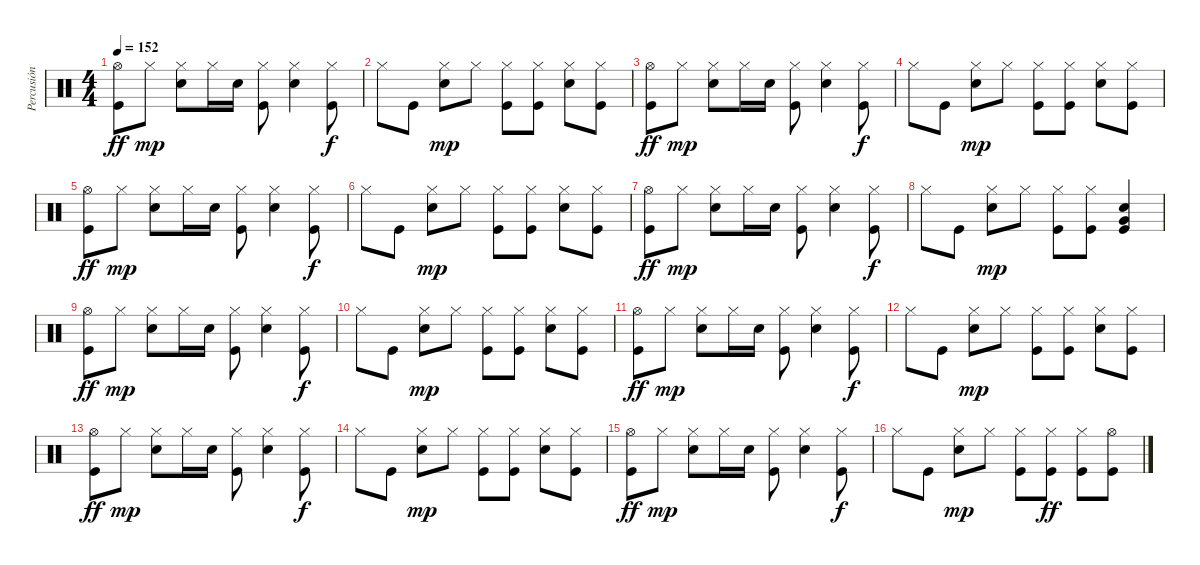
\track ("Percusión" "Percusión") {instrument percussion}
\staff {score}
\articulation defaults
\ts (4 4)
\tempo 152
\clef neutral
\ks c
("Hi-Hat (open)" "Kick (hit)").8{dy ff} "Hi-Hat (closed)".8{dy mp} ("Snare (hit) 2" "Hi-Hat (closed)").8 "Hi-Hat (closed)".16 "Snare (hit) 2".16 ("Hi-Hat (closed)" "Kick (hit)").8 ("Snare (hit) 2" "Hi-Hat (closed)").4 ("Hi-Hat (closed)" "Kick (hit)").8{dy f} |
"Hi-Hat (closed)".8 "Kick (hit)".8 ("Hi-Hat (closed)" "Snare (hit) 2").8{dy mp} "Hi-Hat (closed)".8 ("Hi-Hat (closed)" "Kick (hit)").8 ("Hi-Hat (closed)" "Kick (hit)").8 ("Hi-Hat (closed)" "Snare (hit) 2").8 ("Hi-Hat (closed)" "Kick (hit)").8 |
("Hi-Hat (open)" "Kick (hit)").8{dy ff} "Hi-Hat (closed)".8{dy mp} ("Snare (hit) 2" "Hi-Hat (closed)").8 "Hi-Hat (closed)".16 "Snare (hit) 2".16 ("Hi-Hat (closed)" "Kick (hit)").8 ("Snare (hit) 2" "Hi-Hat (closed)").4 ("Hi-Hat (closed)" "Kick (hit)").8{dy f} |
"Hi-Hat (closed)".8 "Kick (hit)".8 ("Hi-Hat (closed)" "Snare (hit) 2").8{dy mp} "Hi-Hat (closed)".8 ("Hi-Hat (closed)" "Kick (hit)").8 ("Hi-Hat (closed)" "Kick (hit)").8 ("Hi-Hat (closed)" "Snare (hit) 2").8 ("Hi-Hat (closed)" "Kick (hit)").8 |
("Hi-Hat (open)" "Kick (hit)").8{dy ff} "Hi-Hat (closed)".8{dy mp} ("Snare (hit) 2" "Hi-Hat (closed)").8 "Hi-Hat (closed)".16 "Snare (hit) 2".16 ("Hi-Hat (closed)" "Kick (hit)").8 ("Snare (hit) 2" "Hi-Hat (closed)").4 ("Hi-Hat (closed)" "Kick (hit)").8{dy f} |
"Hi-Hat (closed)".8 "Kick (hit)".8 ("Hi-Hat (closed)" "Snare (hit) 2").8{dy mp} "Hi-Hat (closed)".8 ("Hi-Hat (closed)" "Kick (hit)").8 ("Hi-Hat (closed)" "Kick (hit)").8 ("Hi-Hat (closed)" "Snare (hit) 2").8 ("Hi-Hat (closed)" "Kick (hit)").8 |
("Hi-Hat (open)" "Kick (hit)").8{dy ff} "Hi-Hat (closed)".8{dy mp} ("Snare (hit) 2" "Hi-Hat (closed)").8 "Hi-Hat (closed)".16 "Snare (hit) 2".16 ("Hi-Hat (closed)" "Kick (hit)").8 ("Snare (hit) 2" "Hi-Hat (closed)").4 ("Hi-Hat (closed)" "Kick (hit)").8{dy f} |
"Hi-Hat (closed)".8 "Kick (hit)".8 ("Hi-Hat (closed)" "Snare (hit) 2").8{dy mp} "Hi-Hat (closed)".8 ("Hi-Hat (closed)" "Kick (hit)").8 ("Hi-Hat (closed)" "Kick (hit)").8 ("Very Low Tom (hit)" "Snare (hit) 2" "Kick (hit)").4 |
("Hi-Hat (open)" "Kick (hit)").8{dy ff} "Hi-Hat (closed)".8{dy mp} ("Snare (hit) 2" "Hi-Hat (closed)").8 "Hi-Hat (closed)".16 "Snare (hit) 2".16 ("Hi-Hat (closed)" "Kick (hit)").8 ("Snare (hit) 2" "Hi-Hat (closed)").4 ("Hi-Hat (closed)" "Kick (hit)").8{dy f} |
"Hi-Hat (closed)".8 "Kick (hit)".8 ("Hi-Hat (closed)" "Snare (hit) 2").8{dy mp} "Hi-Hat (closed)".8 ("Hi-Hat (closed)" "Kick (hit)").8 ("Hi-Hat (closed)" "Kick (hit)").8 ("Hi-Hat (closed)" "Snare (hit) 2").8 ("Hi-Hat (closed)" "Kick (hit)").8 |
("Hi-Hat (open)" "Kick (hit)").8{dy ff} "Hi-Hat (closed)".8{dy mp} ("Snare (hit) 2" "Hi-Hat (closed)").8 "Hi-Hat (closed)".16 "Snare (hit) 2".16 ("Hi-Hat (closed)" "Kick (hit)").8 ("Snare (hit) 2" "Hi-Hat (closed)").4 ("Hi-Hat (closed)" "Kick (hit)").8{dy f} |
"Hi-Hat (closed)".8 "Kick (hit)".8 ("Hi-Hat (closed)" "Snare (hit) 2").8{dy mp} "Hi-Hat (closed)".8 ("Hi-Hat (closed)" "Kick (hit)").8 ("Hi-Hat (closed)" "Kick (hit)").8 ("Hi-Hat (closed)" "Snare (hit) 2").8 ("Hi-Hat (closed)" "Kick (hit)").8 |
("Hi-Hat (open)" "Kick (hit)").8{dy ff} "Hi-Hat (closed)".8{dy mp} ("Snare (hit) 2" "Hi-Hat (closed)").8 "Hi-Hat (closed)".16 "Snare (hit) 2".16 ("Hi-Hat (closed)" "Kick (hit)").8 ("Snare (hit) 2" "Hi-Hat (closed)").4 ("Hi-Hat (closed)" "Kick (hit)").8{dy f} |
"Hi-Hat (closed)".8 "Kick (hit)".8 ("Hi-Hat (closed)" "Snare (hit) 2").8{dy mp} "Hi-Hat (closed)".8 ("Hi-Hat (closed)" "Kick (hit)").8 ("Hi-Hat (closed)" "Kick (hit)").8 ("Hi-Hat (closed)" "Snare (hit) 2").8 ("Hi-Hat (closed)" "Kick (hit)").8 |
("Hi-Hat (open)" "Kick (hit)").8{dy ff} "Hi-Hat (closed)".8{dy mp} ("Snare (hit) 2" "Hi-Hat (closed)").8 "Hi-Hat (closed)".16 "Snare (hit) 2".16 ("Hi-Hat (closed)" "Kick (hit)").8 ("Snare (hit) 2" "Hi-Hat (closed)").4 ("Hi-Hat (closed)" "Kick (hit)").8{dy f} |
"Hi-Hat (closed)".8 "Kick (hit)".8 ("Hi-Hat (closed)" "Snare (hit) 2").8{dy mp} "Hi-Hat (closed)".8 ("Hi-Hat (closed)" "Kick (hit)").8 ("Hi-Hat (closed)" "Kick (hit)").8{dy ff} ("Hi-Hat (closed)" "Kick (hit)").8 ("Hi-Hat (open)" "Kick (hit)").8
